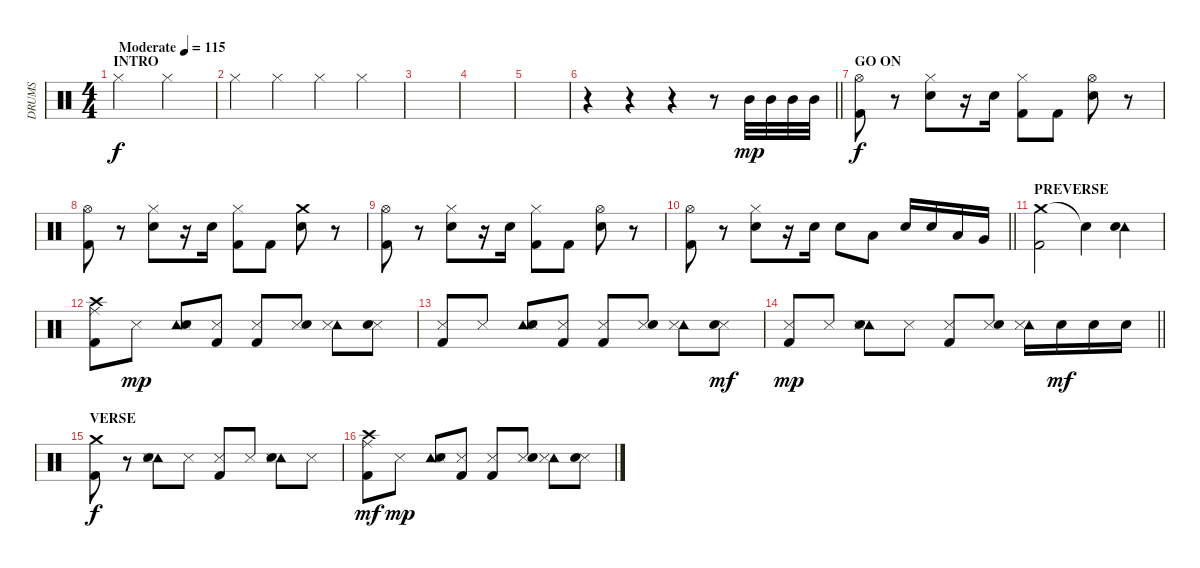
\track ("DRUMS" "DRUMS") {instrument percussion}
\staff {score}
\articulation defaults
\ts (4 4)
\section ("" "INTRO")
\tempo (115 "Moderate")
\clef neutral
\ks c "Hi-Hat (closed)".2{dy f} "Hi-Hat (closed)".2
|
"Hi-Hat (closed)".4 "Hi-Hat (closed)".4 "Hi-Hat (closed)".4 "Hi-Hat (closed)".4 |
|
|
|
\barLineRight lightlight
r.4 r.4 r.4 r.8 "Mid Tom (hit)".32{dy mp} "Mid Tom (hit)".32 "Mid Tom (hit)".32 "Mid Tom (hit)".32 |
\section ("" "GO ON")
("Hi-Hat (open)" "Kick (hit) 2").8{dy f} r.8 ("Hi-Hat (closed)" "Electric Snare (hit)").8 r.16 "Electric Snare (hit)".16 ("Hi-Hat (closed)" "Kick (hit) 2").8 "Kick (hit) 2".8 ("Hi-Hat (open)" "Electric Snare (hit)").8 r.8 |
("Hi-Hat (open)" "Kick (hit) 2").8 r.8 ("Hi-Hat (closed)" "Electric Snare (hit)").8 r.16 "Electric Snare (hit)".16 ("Hi-Hat (closed)" "Kick (hit) 2").8 "Kick (hit) 2".8 ("Crash medium (hit)" "Electric Snare (hit)").8 r.8 |
("Hi-Hat (open)" "Kick (hit) 2").8 r.8 ("Hi-Hat (closed)" "Electric Snare (hit)").8 r.16 "Electric Snare (hit)".16 ("Hi-Hat (closed)" "Kick (hit) 2").8 "Kick (hit) 2".8 ("Hi-Hat (open)" "Electric Snare (hit)").8 r.8 |
\barLineRight lightlight
("Hi-Hat (open)" "Kick (hit) 2").8 r.8 ("Hi-Hat (closed)" "Electric Snare (hit)").8 r.16 "Electric Snare (hit)".16 "Electric Snare (hit)".8 "Low Tom (hit)".8 "Electric Snare (hit)".16 "Electric Snare (hit)".16 "Low Tom (hit)".16 "Very Low Tom (hit)".16 |
\section ("" "PREVERSE")
("Crash medium (hit)" "Kick (hit) 2").2 "Snare (hit)"{t}.4 ("Tambourine (hit)" "Electric Snare (hit)").4 |
("Crash high (hit)" "Ride (middle)" "Kick (hit) 2").8 "Snare (side stick) 3".8{dy mp} ("Tambourine (hit)" "Snare (side stick) 3" "Electric Snare (hit)").8 ("Snare (side stick) 3" "Kick (hit) 2").8 ("Snare (side stick) 3" "Kick (hit) 2").8 ("Snare (side stick) 3" "Electric Snare (hit)").8 ("Tambourine (hit)" "Snare (side stick) 3").8 ("Snare (side stick) 3" "Electric Snare (hit)").8 |
("Snare (side stick) 3" "Kick (hit) 2").8 "Snare (side stick) 3".8 ("Tambourine (hit)" "Snare (side stick) 3" "Electric Snare (hit)").8 ("Snare (side stick) 3" "Kick (hit) 2").8 ("Snare (side stick) 3" "Kick (hit) 2").8 ("Snare (side stick) 3" "Electric Snare (hit)").8 ("Tambourine (hit)" "Snare (side stick) 3").8 ("Snare (side stick) 3" "Electric Snare (hit)").8{dy mf} |
\barLineRight lightlight
("Snare (side stick) 3" "Kick (hit) 2").8{dy mp} "Snare (side stick) 3".8 ("Tambourine (hit)" "Snare (side stick) 3" "Electric Snare (hit)").8 "Snare (side stick) 3".8 ("Snare (side stick) 3" "Kick (hit) 2").8 ("Snare (side stick) 3" "Electric Snare (hit)").8 ("Tambourine (hit)" "Snare (side stick) 3").16 "Electric Snare (hit)".16{dy mf} "Electric Snare (hit)".16 "Electric Snare (hit)".16 |
\section ("" "VERSE")
("Crash medium (hit)" "Kick (hit) 2").8{dy f} r.8 ("Tambourine (hit)" "Snare (side stick) 3" "Electric Snare (hit)").8 "Snare (side stick) 3".8 ("Snare (side stick) 3" "Kick (hit) 2").8 "Snare (side stick) 3".8 ("Tambourine (hit)" "Snare (side stick) 3" "Electric Snare (hit)").8 "Snare (side stick) 3".8 |
("Crash high (hit)" "Ride (middle)" "Kick (hit) 2").8{dy mf} "Snare (side stick) 3".8{dy mp} ("Tambourine (hit)" "Snare (side stick) 3" "Electric Snare (hit)").8 ("Snare (side stick) 3" "Kick (hit) 2").8 ("Snare (side stick) 3" "Kick (hit) 2").8 ("Snare (side stick) 3" "Electric Snare (hit)").8 ("Tambourine (hit)" "Snare (side stick) 3").8 ("Snare (side stick) 3" "Electric Snare (hit)").8
